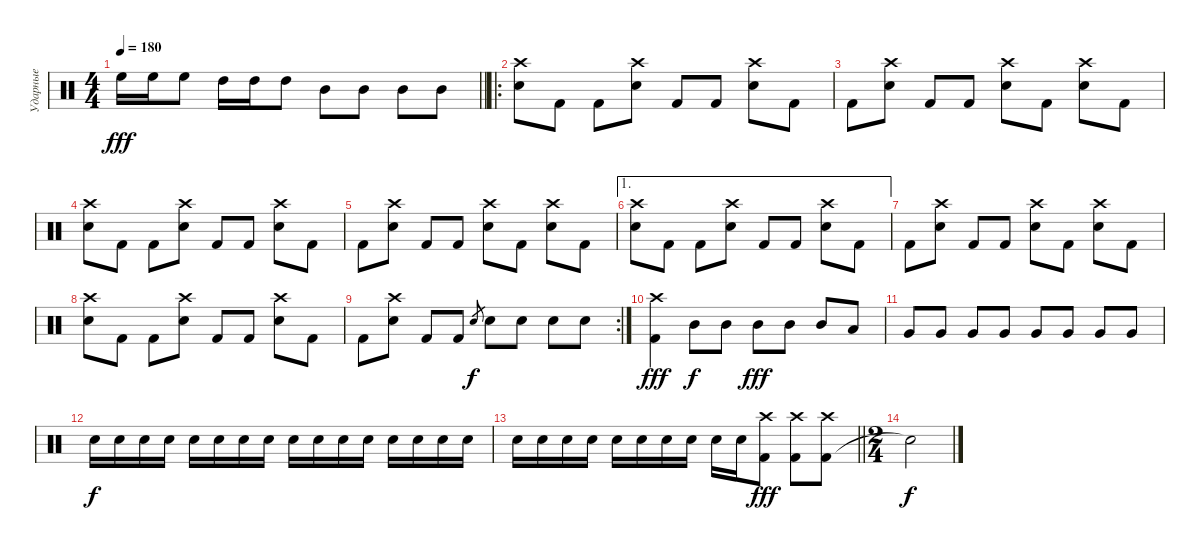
\track ("Ударные" "Ударные") {instrument percussion}
\staff
\articulation defaults
\ts (4 4)
\tempo 180
\clef neutral
\barLineRight lightlight
\ks c "High Floor Tom (hit)".16{dy fff} "High Floor Tom (hit)".16 "High Floor Tom (hit)".8 "High Tom (hit)".16 "High Tom (hit)".16 "High Tom (hit)".8 "Mid Tom (hit)".8 "Mid Tom (hit)".8 "Mid Tom (hit)".8 "Mid Tom (hit)".8
|
\ro
("Snare (hit) 2" "Crash high (hit)").8 "Kick (hit) 2".8 "Kick (hit) 2".8 ("Snare (hit) 2" "Crash high (hit)").8 "Kick (hit) 2".8 "Kick (hit) 2".8 ("Snare (hit) 2" "Crash high (hit)").8 "Kick (hit) 2".8 |
"Kick (hit) 2".8 ("Snare (hit) 2" "Crash high (hit)").8 "Kick (hit) 2".8 "Kick (hit) 2".8 ("Snare (hit) 2" "Crash high (hit)").8 "Kick (hit) 2".8 ("Snare (hit) 2" "Crash high (hit)").8 "Kick (hit) 2".8 |
("Snare (hit) 2" "Crash high (hit)").8 "Kick (hit) 2".8 "Kick (hit) 2".8 ("Snare (hit) 2" "Crash high (hit)").8 "Kick (hit) 2".8 "Kick (hit) 2".8 ("Snare (hit) 2" "Crash high (hit)").8 "Kick (hit) 2".8 |
"Kick (hit) 2".8 ("Snare (hit) 2" "Crash high (hit)").8 "Kick (hit) 2".8 "Kick (hit) 2".8 ("Snare (hit) 2" "Crash high (hit)").8 "Kick (hit) 2".8 ("Snare (hit) 2" "Crash high (hit)").8 "Kick (hit) 2".8 |
\ae 1
("Snare (hit) 2" "Crash high (hit)").8 "Kick (hit) 2".8 "Kick (hit) 2".8 ("Snare (hit) 2" "Crash high (hit)").8 "Kick (hit) 2".8 "Kick (hit) 2".8 ("Snare (hit) 2" "Crash high (hit)").8 "Kick (hit) 2".8 |
"Kick (hit) 2".8 ("Snare (hit) 2" "Crash high (hit)").8 "Kick (hit) 2".8 "Kick (hit) 2".8 ("Snare (hit) 2" "Crash high (hit)").8 "Kick (hit) 2".8 ("Snare (hit) 2" "Crash high (hit)").8 "Kick (hit) 2".8 |
("Snare (hit) 2" "Crash high (hit)").8 "Kick (hit) 2".8 "Kick (hit) 2".8 ("Snare (hit) 2" "Crash high (hit)").8 "Kick (hit) 2".8 "Kick (hit) 2".8 ("Snare (hit) 2" "Crash high (hit)").8 "Kick (hit) 2".8 |
\rc 2 "Kick (hit) 2".8
("Snare (hit) 2" "Crash high (hit)").8 "Kick (hit) 2".8 "Kick (hit) 2".8 "Electric Snare (hit)".8{gr dy f} "Electric Snare (hit)".8 "Electric Snare (hit)".8 "Electric Snare (hit)".8 "Electric Snare (hit)".8 |
("Kick (hit) 2" "Crash high (hit)").4{dy fff} "Mid Tom (hit)".8{dy f} "Mid Tom (hit)".8 "Mid Tom (hit)".8{dy fff} "Mid Tom (hit)".8 "Mid Tom (hit)".8 "Low Tom (hit)".8 |
"Very Low Tom (hit)".8 "Very Low Tom (hit)".8 "Very Low Tom (hit)".8 "Very Low Tom (hit)".8 "Very Low Tom (hit)".8 "Very Low Tom (hit)".8 "Very Low Tom (hit)".8 "Very Low Tom (hit)".8 |
"Snare (hit) 2".16{dy f} "Snare (hit) 2".16 "Snare (hit) 2".16 "Snare (hit) 2".16 "Snare (hit) 2".16 "Snare (hit) 2".16 "Snare (hit) 2".16 "Snare (hit) 2".16 "Snare (hit) 2".16 "Snare (hit) 2".16 "Snare (hit) 2".16 "Snare (hit) 2".16 "Snare (hit) 2".16 "Snare (hit) 2".16 "Snare (hit) 2".16 "Snare (hit) 2".16 |
\barLineRight lightlight "Snare (hit) 2".16 "Snare (hit) 2".16 "Snare (hit) 2".16 "Snare (hit) 2".16 "Snare (hit) 2".16 "Snare (hit) 2".16 "Snare (hit) 2".16 "Snare (hit) 2".16 "Snare (hit) 2".16 "Snare (hit) 2".16
("Kick (hit) 2" "Crash high (hit)").8{dy fff} ("Kick (hit) 2" "Crash high (hit)").8 ("Kick (hit) 2" "Crash high (hit)").8 |
\ts (2 4)
"Snare (hit)"{t}.2{dy f}
